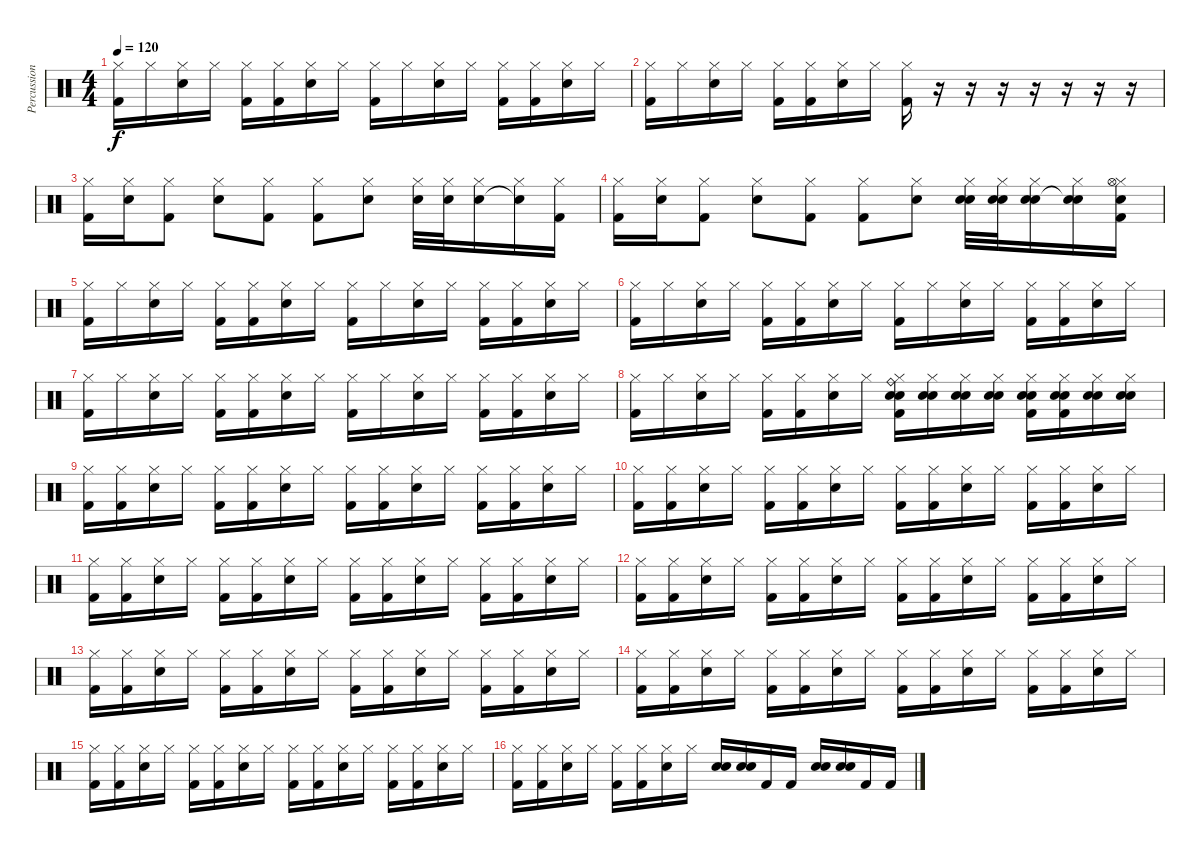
\track ("Percussions" "Percussion") {instrument percussion}
\staff {score}
\articulation defaults
\ts (4 4)
\tempo 120
\clef neutral
\ks c
("Hi-Hat (closed)" "Kick (hit) 2").16{dy f} "Hi-Hat (closed)".16 ("Hi-Hat (closed)" "Electric Snare (hit)").16 "Hi-Hat (closed)".16 ("Hi-Hat (closed)" "Kick (hit) 2").16 ("Hi-Hat (closed)" "Kick (hit) 2").16 ("Hi-Hat (closed)" "Electric Snare (hit)").16 "Hi-Hat (closed)".16 ("Hi-Hat (closed)" "Kick (hit) 2").16 "Hi-Hat (closed)".16 ("Hi-Hat (closed)" "Electric Snare (hit)").16 "Hi-Hat (closed)".16 ("Hi-Hat (closed)" "Kick (hit) 2").16 ("Hi-Hat (closed)" "Kick (hit) 2").16 ("Hi-Hat (closed)" "Electric Snare (hit)").16 "Hi-Hat (closed)".16 |
("Hi-Hat (closed)" "Kick (hit) 2").16 "Hi-Hat (closed)".16 ("Hi-Hat (closed)" "Electric Snare (hit)").16 "Hi-Hat (closed)".16 ("Hi-Hat (closed)" "Kick (hit) 2").16 ("Hi-Hat (closed)" "Kick (hit) 2").16 ("Hi-Hat (closed)" "Electric Snare (hit)").16 "Hi-Hat (closed)".16 ("Hi-Hat (closed)" "Kick (hit) 2").16 r.16 r.16 r.16 r.16 r.16 r.16 r.16 |
("Hi-Hat (closed)" "Kick (hit) 2").16{volume 8} ("Hi-Hat (closed)" "Snare (hit) 2").16 ("Hi-Hat (closed)" "Kick (hit) 2").8 ("Hi-Hat (closed)" "Electric Snare (hit)").8 ("Hi-Hat (closed)" "Kick (hit) 2").8 ("Hi-Hat (closed)" "Kick (hit) 2").8 ("Hi-Hat (closed)" "Snare (hit) 2").8 ("Hi-Hat (closed)" "Snare (hit) 2").32 ("Hi-Hat (closed)" "Electric Snare (hit)").32 ("Hi-Hat (closed)" "Snare (hit) 2").16 ("Hi-Hat (closed)" "Snare (hit)"{t}).16 ("Hi-Hat (closed)" "Kick (hit) 2").16 |
("Hi-Hat (closed)" "Kick (hit) 2").16 ("Hi-Hat (closed)" "Snare (hit) 2").16 ("Hi-Hat (closed)" "Kick (hit) 2").8 ("Hi-Hat (closed)" "Electric Snare (hit)").8 ("Hi-Hat (closed)" "Kick (hit) 2").8 ("Hi-Hat (closed)" "Kick (hit) 2").8 ("Hi-Hat (closed)" "Snare (hit) 2").8 ("Hi-Hat (closed)" "Electric Snare (hit)" "Snare (hit) 2").32{volume 16} ("Hi-Hat (closed)" "Electric Snare (hit)" "Electric Snare (hit)").32 ("Hi-Hat (closed)" "Electric Snare (hit)" "Snare (hit) 2").16 ("Hi-Hat (closed)" "Electric Snare (hit)" "Snare (hit)"{t}).16 ("Hi-Hat (closed)" "Hi-Hat (open)" "Electric Snare (hit)" "Kick (hit) 2").16 |
("Hi-Hat (closed)" "Kick (hit) 2").16 "Hi-Hat (closed)".16 ("Hi-Hat (closed)" "Electric Snare (hit)").16 "Hi-Hat (closed)".16 ("Hi-Hat (closed)" "Kick (hit) 2").16 ("Hi-Hat (closed)" "Kick (hit) 2").16 ("Hi-Hat (closed)" "Electric Snare (hit)").16 "Hi-Hat (closed)".16 ("Hi-Hat (closed)" "Kick (hit) 2").16 "Hi-Hat (closed)".16 ("Hi-Hat (closed)" "Electric Snare (hit)").16 "Hi-Hat (closed)".16 ("Hi-Hat (closed)" "Kick (hit) 2").16 ("Hi-Hat (closed)" "Kick (hit) 2").16 ("Hi-Hat (closed)" "Electric Snare (hit)").16 "Hi-Hat (closed)".16 |
("Hi-Hat (closed)" "Kick (hit) 2").16 "Hi-Hat (closed)".16 ("Hi-Hat (closed)" "Electric Snare (hit)").16 "Hi-Hat (closed)".16 ("Hi-Hat (closed)" "Kick (hit) 2").16 ("Hi-Hat (closed)" "Kick (hit) 2").16 ("Hi-Hat (closed)" "Electric Snare (hit)").16 "Hi-Hat (closed)".16 ("Hi-Hat (closed)" "Kick (hit) 2").16 "Hi-Hat (closed)".16 ("Hi-Hat (closed)" "Electric Snare (hit)").16 "Hi-Hat (closed)".16 ("Hi-Hat (closed)" "Kick (hit) 2").16 ("Hi-Hat (closed)" "Kick (hit) 2").16 ("Hi-Hat (closed)" "Electric Snare (hit)").16 "Hi-Hat (closed)".16 |
("Hi-Hat (closed)" "Kick (hit) 2").16 "Hi-Hat (closed)".16 ("Hi-Hat (closed)" "Electric Snare (hit)").16 "Hi-Hat (closed)".16 ("Hi-Hat (closed)" "Kick (hit) 2").16 ("Hi-Hat (closed)" "Kick (hit) 2").16 ("Hi-Hat (closed)" "Electric Snare (hit)").16 "Hi-Hat (closed)".16 ("Hi-Hat (closed)" "Kick (hit) 2").16 "Hi-Hat (closed)".16 ("Hi-Hat (closed)" "Electric Snare (hit)").16 "Hi-Hat (closed)".16 ("Hi-Hat (closed)" "Kick (hit) 2").16 ("Hi-Hat (closed)" "Kick (hit) 2").16 ("Hi-Hat (closed)" "Electric Snare (hit)").16 "Hi-Hat (closed)".16 |
("Hi-Hat (closed)" "Kick (hit) 2").16 "Hi-Hat (closed)".16 ("Hi-Hat (closed)" "Electric Snare (hit)").16 "Hi-Hat (closed)".16 ("Hi-Hat (closed)" "Kick (hit) 2").16 ("Hi-Hat (closed)" "Kick (hit) 2").16 ("Hi-Hat (closed)" "Electric Snare (hit)").16 "Hi-Hat (closed)".16 ("Hi-Hat (closed)" "Ride (bell)" "Snare (hit) 2" "Electric Snare (hit)" "Kick (hit) 2").16 ("Hi-Hat (closed)" "Snare (hit) 2" "Electric Snare (hit)").16 ("Hi-Hat (closed)" "Snare (hit) 2" "Electric Snare (hit)").16 ("Hi-Hat (closed)" "Snare (hit) 2" "Electric Snare (hit)").16 ("Hi-Hat (closed)" "Snare (hit) 2" "Electric Snare (hit)" "Kick (hit) 2").16 ("Hi-Hat (closed)" "Snare (hit) 2" "Electric Snare (hit)" "Kick (hit) 2").16 ("Hi-Hat (closed)" "Snare (hit) 2" "Electric Snare (hit)").16 ("Hi-Hat (closed)" "Snare (hit) 2" "Electric Snare (hit)").16 |
("Hi-Hat (closed)" "Kick (hit) 2").16 ("Hi-Hat (closed)" "Kick (hit) 2").16 ("Hi-Hat (closed)" "Electric Snare (hit)").16 "Hi-Hat (closed)".16 ("Hi-Hat (closed)" "Kick (hit) 2").16 ("Hi-Hat (closed)" "Kick (hit) 2").16 ("Hi-Hat (closed)" "Electric Snare (hit)").16 "Hi-Hat (closed)".16 ("Hi-Hat (closed)" "Kick (hit) 2").16 ("Hi-Hat (closed)" "Kick (hit) 2").16 ("Hi-Hat (closed)" "Electric Snare (hit)").16 "Hi-Hat (closed)".16 ("Hi-Hat (closed)" "Kick (hit) 2").16 ("Hi-Hat (closed)" "Kick (hit) 2").16 ("Hi-Hat (closed)" "Electric Snare (hit)").16 "Hi-Hat (closed)".16 |
("Hi-Hat (closed)" "Kick (hit) 2").16 ("Hi-Hat (closed)" "Kick (hit) 2").16 ("Hi-Hat (closed)" "Electric Snare (hit)").16 "Hi-Hat (closed)".16 ("Hi-Hat (closed)" "Kick (hit) 2").16 ("Hi-Hat (closed)" "Kick (hit) 2").16 ("Hi-Hat (closed)" "Electric Snare (hit)").16 "Hi-Hat (closed)".16 ("Hi-Hat (closed)" "Kick (hit) 2").16 ("Hi-Hat (closed)" "Kick (hit) 2").16 ("Hi-Hat (closed)" "Electric Snare (hit)").16 "Hi-Hat (closed)".16 ("Hi-Hat (closed)" "Kick (hit) 2").16 ("Hi-Hat (closed)" "Kick (hit) 2").16 ("Hi-Hat (closed)" "Electric Snare (hit)").16 "Hi-Hat (closed)".16 |
("Hi-Hat (closed)" "Kick (hit) 2").16 ("Hi-Hat (closed)" "Kick (hit) 2").16 ("Hi-Hat (closed)" "Electric Snare (hit)").16 "Hi-Hat (closed)".16 ("Hi-Hat (closed)" "Kick (hit) 2").16 ("Hi-Hat (closed)" "Kick (hit) 2").16 ("Hi-Hat (closed)" "Electric Snare (hit)").16 "Hi-Hat (closed)".16 ("Hi-Hat (closed)" "Kick (hit) 2").16 ("Hi-Hat (closed)" "Kick (hit) 2").16 ("Hi-Hat (closed)" "Electric Snare (hit)").16 "Hi-Hat (closed)".16 ("Hi-Hat (closed)" "Kick (hit) 2").16 ("Hi-Hat (closed)" "Kick (hit) 2").16 ("Hi-Hat (closed)" "Electric Snare (hit)").16 "Hi-Hat (closed)".16 |
("Hi-Hat (closed)" "Kick (hit) 2").16 ("Hi-Hat (closed)" "Kick (hit) 2").16 ("Hi-Hat (closed)" "Electric Snare (hit)").16 "Hi-Hat (closed)".16 ("Hi-Hat (closed)" "Kick (hit) 2").16 ("Hi-Hat (closed)" "Kick (hit) 2").16 ("Hi-Hat (closed)" "Electric Snare (hit)").16 "Hi-Hat (closed)".16 ("Hi-Hat (closed)" "Kick (hit) 2").16 ("Hi-Hat (closed)" "Kick (hit) 2").16 ("Hi-Hat (closed)" "Electric Snare (hit)").16 "Hi-Hat (closed)".16 ("Hi-Hat (closed)" "Kick (hit) 2").16 ("Hi-Hat (closed)" "Kick (hit) 2").16 ("Hi-Hat (closed)" "Electric Snare (hit)").16 "Hi-Hat (closed)".16 |
("Hi-Hat (closed)" "Kick (hit) 2").16 ("Hi-Hat (closed)" "Kick (hit) 2").16 ("Hi-Hat (closed)" "Electric Snare (hit)").16 "Hi-Hat (closed)".16 ("Hi-Hat (closed)" "Kick (hit) 2").16 ("Hi-Hat (closed)" "Kick (hit) 2").16 ("Hi-Hat (closed)" "Electric Snare (hit)").16 "Hi-Hat (closed)".16 ("Hi-Hat (closed)" "Kick (hit) 2").16 ("Hi-Hat (closed)" "Kick (hit) 2").16 ("Hi-Hat (closed)" "Electric Snare (hit)").16 "Hi-Hat (closed)".16 ("Hi-Hat (closed)" "Kick (hit) 2").16 ("Hi-Hat (closed)" "Kick (hit) 2").16 ("Hi-Hat (closed)" "Electric Snare (hit)").16 "Hi-Hat (closed)".16 |
("Hi-Hat (closed)" "Kick (hit) 2").16 ("Hi-Hat (closed)" "Kick (hit) 2").16 ("Hi-Hat (closed)" "Electric Snare (hit)").16 "Hi-Hat (closed)".16 ("Hi-Hat (closed)" "Kick (hit) 2").16 ("Hi-Hat (closed)" "Kick (hit) 2").16 ("Hi-Hat (closed)" "Electric Snare (hit)").16 "Hi-Hat (closed)".16 ("Hi-Hat (closed)" "Kick (hit) 2").16 ("Hi-Hat (closed)" "Kick (hit) 2").16 ("Hi-Hat (closed)" "Electric Snare (hit)").16 "Hi-Hat (closed)".16 ("Hi-Hat (closed)" "Kick (hit) 2").16 ("Hi-Hat (closed)" "Kick (hit) 2").16 ("Hi-Hat (closed)" "Electric Snare (hit)").16 "Hi-Hat (closed)".16 |
("Hi-Hat (closed)" "Kick (hit) 2").16 ("Hi-Hat (closed)" "Kick (hit) 2").16 ("Hi-Hat (closed)" "Electric Snare (hit)").16 "Hi-Hat (closed)".16 ("Hi-Hat (closed)" "Kick (hit) 2").16 ("Hi-Hat (closed)" "Kick (hit) 2").16 ("Hi-Hat (closed)" "Electric Snare (hit)").16 "Hi-Hat (closed)".16 ("Hi-Hat (closed)" "Kick (hit) 2").16 ("Hi-Hat (closed)" "Kick (hit) 2").16 ("Hi-Hat (closed)" "Electric Snare (hit)").16 "Hi-Hat (closed)".16 ("Hi-Hat (closed)" "Kick (hit) 2").16 ("Hi-Hat (closed)" "Kick (hit) 2").16 ("Hi-Hat (closed)" "Electric Snare (hit)").16 "Hi-Hat (closed)".16 |
("Hi-Hat (closed)" "Kick (hit) 2").16 ("Hi-Hat (closed)" "Kick (hit) 2").16 ("Hi-Hat (closed)" "Electric Snare (hit)").16 "Hi-Hat (closed)".16 ("Hi-Hat (closed)" "Kick (hit) 2").16 ("Hi-Hat (closed)" "Kick (hit) 2").16 ("Hi-Hat (closed)" "Electric Snare (hit)").16 "Hi-Hat (closed)".16 ("Snare (hit) 2" "Electric Snare (hit)").16{bd 480} ("Snare (hit) 2" "Electric Snare (hit)").16{bd 480} "Kick (hit) 2".16 "Kick (hit) 2".16 ("Electric Snare (hit)" "Snare (hit) 2").16{bd 480} ("Electric Snare (hit)" "Snare (hit) 2").16{bd 480} "Kick (hit) 2".16 "Kick (hit) 2".16
